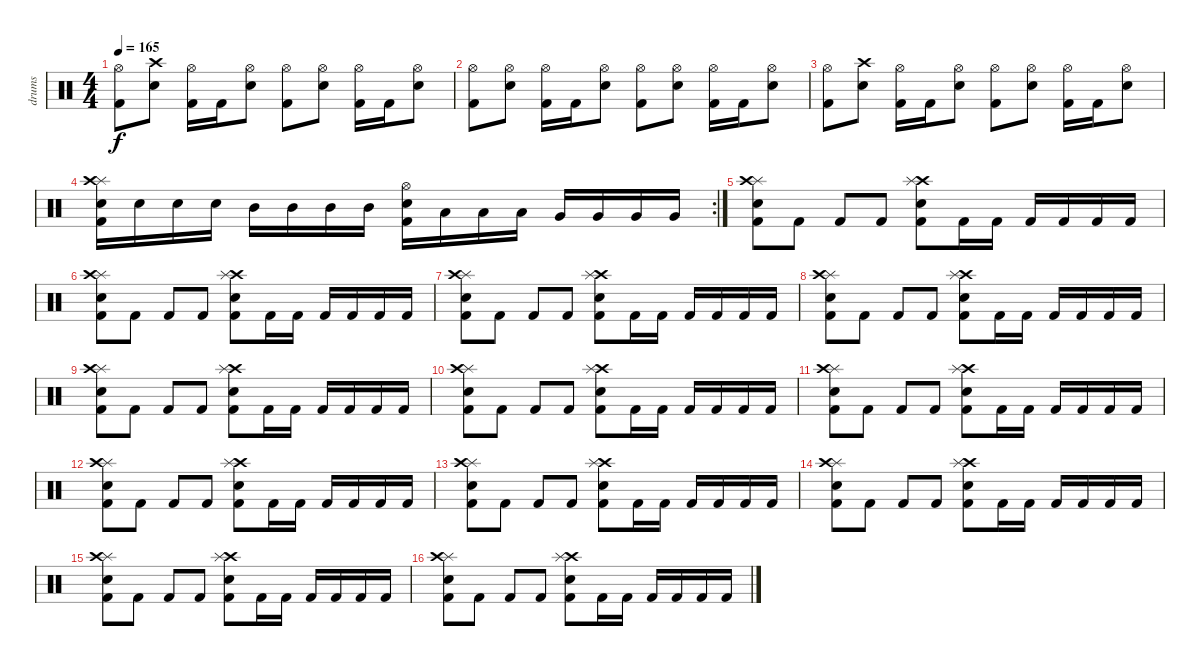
\track ("drums" "drums") {instrument percussion}
\staff {score}
\articulation defaults
\ts (4 4)
\tempo 165
\clef neutral
\ks c
("Hi-Hat (open)" "Kick (hit) 2").8{dy f} ("Electric Snare (hit)" "Crash high (hit)").8 ("Hi-Hat (open)" "Kick (hit) 2").16 "Kick (hit) 2".16 ("Electric Snare (hit)" "Hi-Hat (open)").8 ("Hi-Hat (open)" "Kick (hit) 2").8 ("Electric Snare (hit)" "Hi-Hat (open)").8 ("Hi-Hat (open)" "Kick (hit) 2").16 "Kick (hit) 2".16 ("Electric Snare (hit)" "Hi-Hat (open)").8 |
("Hi-Hat (open)" "Kick (hit) 2").8 ("Electric Snare (hit)" "Hi-Hat (open)").8 ("Hi-Hat (open)" "Kick (hit) 2").16 "Kick (hit) 2".16 ("Electric Snare (hit)" "Hi-Hat (open)").8 ("Hi-Hat (open)" "Kick (hit) 2").8 ("Electric Snare (hit)" "Hi-Hat (open)").8 ("Hi-Hat (open)" "Kick (hit) 2").16 "Kick (hit) 2".16 ("Electric Snare (hit)" "Hi-Hat (open)").8 |
("Hi-Hat (open)" "Kick (hit) 2").8 ("Electric Snare (hit)" "Crash high (hit)").8 ("Hi-Hat (open)" "Kick (hit) 2").16 "Kick (hit) 2".16 ("Electric Snare (hit)" "Hi-Hat (open)").8 ("Hi-Hat (open)" "Kick (hit) 2").8 ("Electric Snare (hit)" "Hi-Hat (open)").8 ("Hi-Hat (open)" "Kick (hit) 2").16 "Kick (hit) 2".16 ("Electric Snare (hit)" "Hi-Hat (open)").8 |
\rc 2
("Splash (hit)" "Crash high (hit)" "Electric Snare (hit)" "Kick (hit) 2").16 "Electric Snare (hit)".16 "Electric Snare (hit)".16 "Electric Snare (hit)".16 "Mid Tom (hit)".16 "Mid Tom (hit)".16 "Mid Tom (hit)".16 "Mid Tom (hit)".16 ("Hi-Hat (open)" "Electric Snare (hit)" "Kick (hit) 2").16 "Low Tom (hit)".16 "Low Tom (hit)".16 "Low Tom (hit)".16 "Very Low Tom (hit)".16 "Very Low Tom (hit)".16 "Very Low Tom (hit)".16 "Very Low Tom (hit)".16 |
("Splash (hit)" "Crash high (hit)" "Electric Snare (hit)" "Kick (hit) 2").8 "Kick (hit) 2".8 "Kick (hit) 2".8 "Kick (hit) 2".8 ("Crash high (hit)" "Splash (hit)" "Electric Snare (hit)" "Kick (hit) 2").8 "Kick (hit) 2".16 "Kick (hit) 2".16 "Kick (hit) 2".16 "Kick (hit) 2".16 "Kick (hit) 2".16 "Kick (hit) 2".16 |
("Splash (hit)" "Crash high (hit)" "Electric Snare (hit)" "Kick (hit) 2").8 "Kick (hit) 2".8 "Kick (hit) 2".8 "Kick (hit) 2".8 ("Crash high (hit)" "Splash (hit)" "Electric Snare (hit)" "Kick (hit) 2").8 "Kick (hit) 2".16 "Kick (hit) 2".16 "Kick (hit) 2".16 "Kick (hit) 2".16 "Kick (hit) 2".16 "Kick (hit) 2".16 |
("Splash (hit)" "Crash high (hit)" "Electric Snare (hit)" "Kick (hit) 2").8 "Kick (hit) 2".8 "Kick (hit) 2".8 "Kick (hit) 2".8 ("Crash high (hit)" "Splash (hit)" "Electric Snare (hit)" "Kick (hit) 2").8 "Kick (hit) 2".16 "Kick (hit) 2".16 "Kick (hit) 2".16 "Kick (hit) 2".16 "Kick (hit) 2".16 "Kick (hit) 2".16 |
("Splash (hit)" "Crash high (hit)" "Electric Snare (hit)" "Kick (hit) 2").8 "Kick (hit) 2".8 "Kick (hit) 2".8 "Kick (hit) 2".8 ("Crash high (hit)" "Splash (hit)" "Electric Snare (hit)" "Kick (hit) 2").8 "Kick (hit) 2".16 "Kick (hit) 2".16 "Kick (hit) 2".16 "Kick (hit) 2".16 "Kick (hit) 2".16 "Kick (hit) 2".16 |
("Splash (hit)" "Crash high (hit)" "Electric Snare (hit)" "Kick (hit) 2").8 "Kick (hit) 2".8 "Kick (hit) 2".8 "Kick (hit) 2".8 ("Crash high (hit)" "Splash (hit)" "Electric Snare (hit)" "Kick (hit) 2").8 "Kick (hit) 2".16 "Kick (hit) 2".16 "Kick (hit) 2".16 "Kick (hit) 2".16 "Kick (hit) 2".16 "Kick (hit) 2".16 |
("Splash (hit)" "Crash high (hit)" "Electric Snare (hit)" "Kick (hit) 2").8 "Kick (hit) 2".8 "Kick (hit) 2".8 "Kick (hit) 2".8 ("Crash high (hit)" "Splash (hit)" "Electric Snare (hit)" "Kick (hit) 2").8 "Kick (hit) 2".16 "Kick (hit) 2".16 "Kick (hit) 2".16 "Kick (hit) 2".16 "Kick (hit) 2".16 "Kick (hit) 2".16 |
("Splash (hit)" "Crash high (hit)" "Electric Snare (hit)" "Kick (hit) 2").8 "Kick (hit) 2".8 "Kick (hit) 2".8 "Kick (hit) 2".8 ("Crash high (hit)" "Splash (hit)" "Electric Snare (hit)" "Kick (hit) 2").8 "Kick (hit) 2".16 "Kick (hit) 2".16 "Kick (hit) 2".16 "Kick (hit) 2".16 "Kick (hit) 2".16 "Kick (hit) 2".16 |
("Splash (hit)" "Crash high (hit)" "Electric Snare (hit)" "Kick (hit) 2").8 "Kick (hit) 2".8 "Kick (hit) 2".8 "Kick (hit) 2".8 ("Crash high (hit)" "Splash (hit)" "Electric Snare (hit)" "Kick (hit) 2").8 "Kick (hit) 2".16 "Kick (hit) 2".16 "Kick (hit) 2".16 "Kick (hit) 2".16 "Kick (hit) 2".16 "Kick (hit) 2".16 |
("Splash (hit)" "Crash high (hit)" "Electric Snare (hit)" "Kick (hit) 2").8 "Kick (hit) 2".8 "Kick (hit) 2".8 "Kick (hit) 2".8 ("Crash high (hit)" "Splash (hit)" "Electric Snare (hit)" "Kick (hit) 2").8 "Kick (hit) 2".16 "Kick (hit) 2".16 "Kick (hit) 2".16 "Kick (hit) 2".16 "Kick (hit) 2".16 "Kick (hit) 2".16 |
("Splash (hit)" "Crash high (hit)" "Electric Snare (hit)" "Kick (hit) 2").8 "Kick (hit) 2".8 "Kick (hit) 2".8 "Kick (hit) 2".8 ("Crash high (hit)" "Splash (hit)" "Electric Snare (hit)" "Kick (hit) 2").8 "Kick (hit) 2".16 "Kick (hit) 2".16 "Kick (hit) 2".16 "Kick (hit) 2".16 "Kick (hit) 2".16 "Kick (hit) 2".16 |
("Splash (hit)" "Crash high (hit)" "Electric Snare (hit)" "Kick (hit) 2").8 "Kick (hit) 2".8 "Kick (hit) 2".8 "Kick (hit) 2".8 ("Crash high (hit)" "Splash (hit)" "Electric Snare (hit)" "Kick (hit) 2").8 "Kick (hit) 2".16 "Kick (hit) 2".16 "Kick (hit) 2".16 "Kick (hit) 2".16 "Kick (hit) 2".16 "Kick (hit) 2".16 |
("Splash (hit)" "Crash high (hit)" "Electric Snare (hit)" "Kick (hit) 2").8 "Kick (hit) 2".8 "Kick (hit) 2".8 "Kick (hit) 2".8 ("Crash high (hit)" "Splash (hit)" "Electric Snare (hit)" "Kick (hit) 2").8 "Kick (hit) 2".16 "Kick (hit) 2".16 "Kick (hit) 2".16 "Kick (hit) 2".16 "Kick (hit) 2".16 "Kick (hit) 2".16
